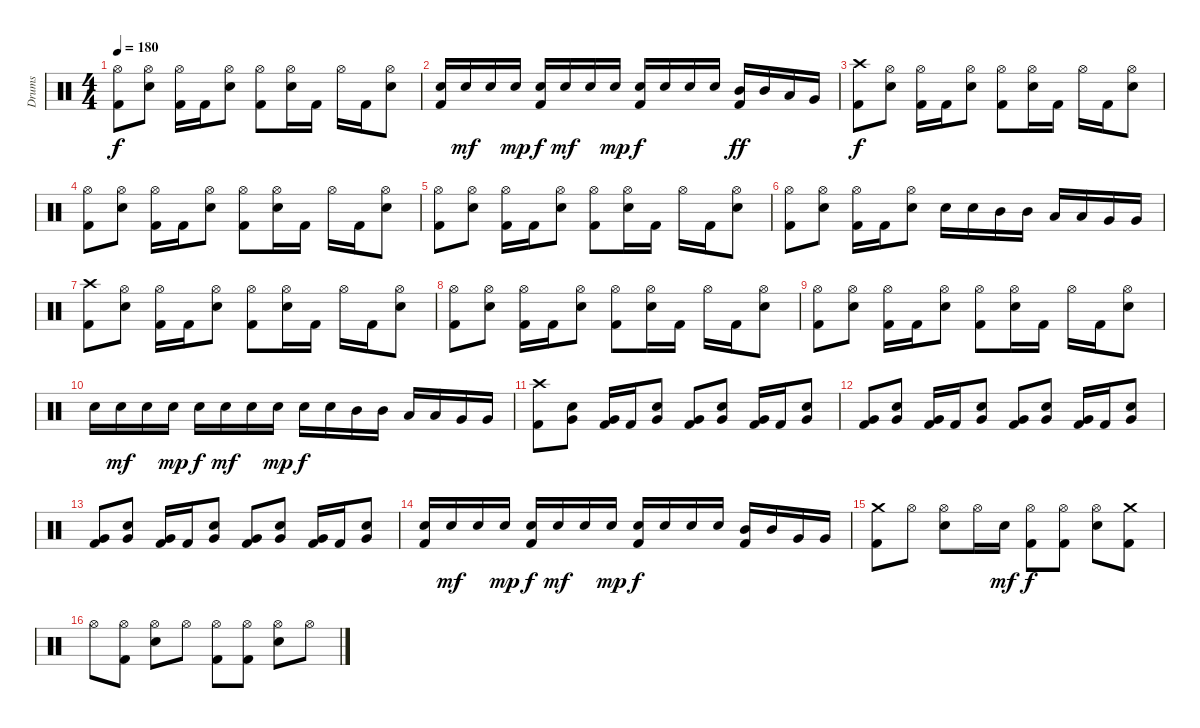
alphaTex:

\track ("Drums" "Drums") {instrument percussion}
\staff {score}
\articulation defaults
\ts (4 4)
\tempo 180
\clef neutral
\ks c
("Hi-Hat (open)" "Kick (hit) 2").8{dy f} ("Hi-Hat (open)" "Electric Snare (hit)").8 ("Hi-Hat (open)" "Kick (hit) 2").16 "Kick (hit) 2".16 ("Hi-Hat (open)" "Electric Snare (hit)").8 ("Hi-Hat (open)" "Kick (hit) 2").8 ("Hi-Hat (open)" "Electric Snare (hit)").16 "Kick (hit) 2".16 "Hi-Hat (open)".16 "Kick (hit) 2".16 ("Hi-Hat (open)" "Electric Snare (hit)").8 |
("Electric Snare (hit)" "Kick (hit) 2").16 "Electric Snare (hit)".16{dy mf} "Electric Snare (hit)".16 "Electric Snare (hit)".16{dy mp} ("Electric Snare (hit)" "Kick (hit) 2").16{dy f} "Electric Snare (hit)".16{dy mf} "Electric Snare (hit)".16 "Electric Snare (hit)".16{dy mp} ("Electric Snare (hit)" "Kick (hit) 2").16{dy f} "Electric Snare (hit)".16 "Electric Snare (hit)".16 "Electric Snare (hit)".16 ("Mid Tom (hit)" "Kick (hit) 2").16{dy ff} "Mid Tom (hit)".16 "Low Tom (hit)".16 "Very Low Tom (hit)".16 |
("Crash high (hit)" "Kick (hit) 2").8{dy f} ("Hi-Hat (open)" "Electric Snare (hit)").8 ("Hi-Hat (open)" "Kick (hit) 2").16 "Kick (hit) 2".16 ("Hi-Hat (open)" "Electric Snare (hit)").8 ("Hi-Hat (open)" "Kick (hit) 2").8 ("Hi-Hat (open)" "Electric Snare (hit)").16 "Kick (hit) 2".16 "Hi-Hat (open)".16 "Kick (hit) 2".16 ("Hi-Hat (open)" "Electric Snare (hit)").8 |
("Hi-Hat (open)" "Kick (hit) 2").8 ("Hi-Hat (open)" "Electric Snare (hit)").8 ("Hi-Hat (open)" "Kick (hit) 2").16 "Kick (hit) 2".16 ("Hi-Hat (open)" "Electric Snare (hit)").8 ("Hi-Hat (open)" "Kick (hit) 2").8 ("Hi-Hat (open)" "Electric Snare (hit)").16 "Kick (hit) 2".16 "Hi-Hat (open)".16 "Kick (hit) 2".16 ("Hi-Hat (open)" "Electric Snare (hit)").8 |
("Hi-Hat (open)" "Kick (hit) 2").8 ("Hi-Hat (open)" "Electric Snare (hit)").8 ("Hi-Hat (open)" "Kick (hit) 2").16 "Kick (hit) 2".16 ("Hi-Hat (open)" "Electric Snare (hit)").8 ("Hi-Hat (open)" "Kick (hit) 2").8 ("Hi-Hat (open)" "Electric Snare (hit)").16 "Kick (hit) 2".16 "Hi-Hat (open)".16 "Kick (hit) 2".16 ("Hi-Hat (open)" "Electric Snare (hit)").8 |
("Hi-Hat (open)" "Kick (hit) 2").8 ("Hi-Hat (open)" "Electric Snare (hit)").8 ("Hi-Hat (open)" "Kick (hit) 2").16 "Kick (hit) 2".16 ("Hi-Hat (open)" "Electric Snare (hit)").8 "Electric Snare (hit)".16 "Electric Snare (hit)".16 "Mid Tom (hit)".16 "Mid Tom (hit)".16 "Low Tom (hit)".16 "Low Tom (hit)".16 "Very Low Tom (hit)".16 "Very Low Tom (hit)".16 |
("Crash high (hit)" "Kick (hit) 2").8 ("Hi-Hat (open)" "Electric Snare (hit)").8 ("Hi-Hat (open)" "Kick (hit) 2").16 "Kick (hit) 2".16 ("Hi-Hat (open)" "Electric Snare (hit)").8 ("Hi-Hat (open)" "Kick (hit) 2").8 ("Hi-Hat (open)" "Electric Snare (hit)").16 "Kick (hit) 2".16 "Hi-Hat (open)".16 "Kick (hit) 2".16 ("Hi-Hat (open)" "Electric Snare (hit)").8 |
("Hi-Hat (open)" "Kick (hit) 2").8 ("Hi-Hat (open)" "Electric Snare (hit)").8 ("Hi-Hat (open)" "Kick (hit) 2").16 "Kick (hit) 2".16 ("Hi-Hat (open)" "Electric Snare (hit)").8 ("Hi-Hat (open)" "Kick (hit) 2").8 ("Hi-Hat (open)" "Electric Snare (hit)").16 "Kick (hit) 2".16 "Hi-Hat (open)".16 "Kick (hit) 2".16 ("Hi-Hat (open)" "Electric Snare (hit)").8 |
("Hi-Hat (open)" "Kick (hit) 2").8 ("Hi-Hat (open)" "Electric Snare (hit)").8 ("Hi-Hat (open)" "Kick (hit) 2").16 "Kick (hit) 2".16 ("Hi-Hat (open)" "Electric Snare (hit)").8 ("Hi-Hat (open)" "Kick (hit) 2").8 ("Hi-Hat (open)" "Electric Snare (hit)").16 "Kick (hit) 2".16 "Hi-Hat (open)".16 "Kick (hit) 2".16 ("Hi-Hat (open)" "Electric Snare (hit)").8 |
"Electric Snare (hit)".16 "Electric Snare (hit)".16{dy mf} "Electric Snare (hit)".16 "Electric Snare (hit)".16{dy mp} "Electric Snare (hit)".16{dy f} "Electric Snare (hit)".16{dy mf} "Electric Snare (hit)".16 "Electric Snare (hit)".16{dy mp} "Electric Snare (hit)".16{dy f} "Electric Snare (hit)".16 "Mid Tom (hit)".16 "Mid Tom (hit)".16 "Low Tom (hit)".16 "Low Tom (hit)".16 "Very Low Tom (hit)".16 "Very Low Tom (hit)".16 |
("Crash high (hit)" "Kick (hit) 2").8 ("Very Low Tom (hit)" "Electric Snare (hit)").8 ("Very Low Tom (hit)" "Kick (hit) 2").16 "Kick (hit) 2".16 ("Very Low Tom (hit)" "Electric Snare (hit)").8 ("Very Low Tom (hit)" "Kick (hit) 2").8 ("Very Low Tom (hit)" "Electric Snare (hit)").8 ("Very Low Tom (hit)" "Kick (hit) 2").16 "Kick (hit) 2".16 ("Very Low Tom (hit)" "Electric Snare (hit)").8 |
("Very Low Tom (hit)" "Kick (hit) 2").8 ("Very Low Tom (hit)" "Electric Snare (hit)").8 ("Very Low Tom (hit)" "Kick (hit) 2").16 "Kick (hit) 2".16 ("Very Low Tom (hit)" "Electric Snare (hit)").8 ("Very Low Tom (hit)" "Kick (hit) 2").8 ("Very Low Tom (hit)" "Electric Snare (hit)").8 ("Very Low Tom (hit)" "Kick (hit) 2").16 "Kick (hit) 2".16 ("Very Low Tom (hit)" "Electric Snare (hit)").8 |
("Very Low Tom (hit)" "Kick (hit) 2").8 ("Very Low Tom (hit)" "Electric Snare (hit)").8 ("Very Low Tom (hit)" "Kick (hit) 2").16 "Kick (hit) 2".16 ("Very Low Tom (hit)" "Electric Snare (hit)").8 ("Very Low Tom (hit)" "Kick (hit) 2").8 ("Very Low Tom (hit)" "Electric Snare (hit)").8 ("Very Low Tom (hit)" "Kick (hit) 2").16 "Kick (hit) 2".16 ("Very Low Tom (hit)" "Electric Snare (hit)").8 |
("Electric Snare (hit)" "Kick (hit) 2").16 "Electric Snare (hit)".16{dy mf} "Electric Snare (hit)".16 "Electric Snare (hit)".16{dy mp} ("Electric Snare (hit)" "Kick (hit) 2").16{dy f} "Electric Snare (hit)".16{dy mf} "Electric Snare (hit)".16 "Electric Snare (hit)".16{dy mp} ("Electric Snare (hit)" "Kick (hit) 2").16{dy f} "Electric Snare (hit)".16 "Electric Snare (hit)".16 "Electric Snare (hit)".16 ("Mid Tom (hit)" "Kick (hit) 2").16 "Mid Tom (hit)".16 "Very Low Tom (hit)".16 "Very Low Tom (hit)".16 |
("Crash medium (hit)" "Kick (hit) 2").8 "Hi-Hat (open)".8 ("Hi-Hat (open)" "Electric Snare (hit)").8 "Hi-Hat (open)".16 "Electric Snare (hit)".16{dy mf} ("Hi-Hat (open)" "Kick (hit) 2").8{dy f} ("Hi-Hat (open)" "Kick (hit) 2").8 ("Hi-Hat (open)" "Electric Snare (hit)").8 ("Crash medium (hit)" "Kick (hit) 2").8 |
"Hi-Hat (open)".8 ("Hi-Hat (open)" "Kick (hit) 2").8 ("Hi-Hat (open)" "Electric Snare (hit)").8 "Hi-Hat (open)".8 ("Hi-Hat (open)" "Kick (hit) 2").8 ("Hi-Hat (open)" "Kick (hit) 2").8 ("Hi-Hat (open)" "Electric Snare (hit)").8 "Hi-Hat (open)".8
